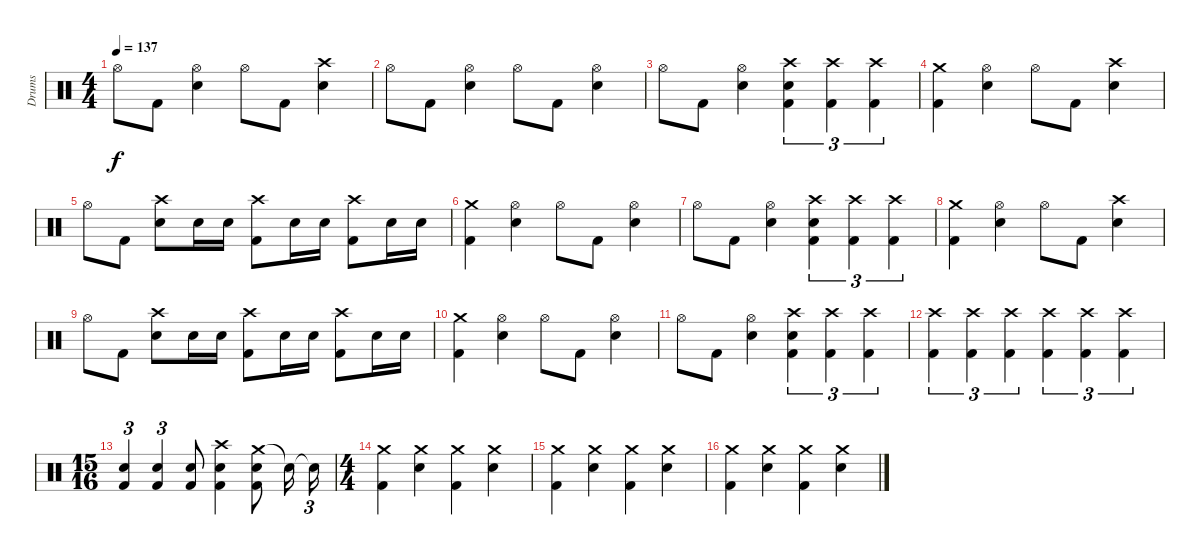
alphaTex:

\track ("Drums" "Drums") {instrument percussion}
\staff {score}
\articulation defaults
\ts (4 4)
\tempo 137
\clef neutral
\ks c "Hi-Hat (open)".8{dy f} "Kick (hit) 2".8
("Hi-Hat (open)" "Snare (hit) 2").4 "Hi-Hat (open)".8 "Kick (hit) 2".8 ("Crash high (hit)" "Snare (hit) 2").4 |
"Hi-Hat (open)".8 "Kick (hit) 2".8 ("Hi-Hat (open)" "Snare (hit) 2").4 "Hi-Hat (open)".8 "Kick (hit) 2".8 ("Hi-Hat (open)" "Snare (hit) 2").4 |
"Hi-Hat (open)".8 "Kick (hit) 2".8 ("Hi-Hat (open)" "Snare (hit) 2").4 ("Crash high (hit)" "Snare (hit) 2" "Kick (hit) 2").4{tu (3 2)} ("Crash high (hit)" "Kick (hit) 2").4{tu (3 2)} ("Crash high (hit)" "Kick (hit) 2").4{tu (3 2)} |
("Crash medium (hit)" "Kick (hit) 2").4 ("Hi-Hat (open)" "Snare (hit) 2").4 "Hi-Hat (open)".8 "Kick (hit) 2".8 ("Crash high (hit)" "Snare (hit) 2").4 |
"Hi-Hat (open)".8 "Kick (hit) 2".8 ("Crash high (hit)" "Snare (hit) 2").8 "Snare (hit) 2".16 "Snare (hit) 2".16 ("Crash high (hit)" "Kick (hit) 2").8 "Snare (hit) 2".16 "Snare (hit) 2".16 ("Crash high (hit)" "Kick (hit) 2").8 "Snare (hit) 2".16 "Snare (hit) 2".16 |
("Crash medium (hit)" "Kick (hit) 2").4 ("Hi-Hat (open)" "Snare (hit) 2").4 "Hi-Hat (open)".8 "Kick (hit) 2".8 ("Hi-Hat (open)" "Snare (hit) 2").4 |
"Hi-Hat (open)".8 "Kick (hit) 2".8 ("Hi-Hat (open)" "Snare (hit) 2").4 ("Crash high (hit)" "Snare (hit) 2" "Kick (hit) 2").4{tu (3 2)} ("Crash high (hit)" "Kick (hit) 2").4{tu (3 2)} ("Crash high (hit)" "Kick (hit) 2").4{tu (3 2)} |
("Crash medium (hit)" "Kick (hit) 2").4 ("Hi-Hat (open)" "Snare (hit) 2").4 "Hi-Hat (open)".8 "Kick (hit) 2".8 ("Crash high (hit)" "Snare (hit) 2").4 |
"Hi-Hat (open)".8 "Kick (hit) 2".8 ("Crash high (hit)" "Snare (hit) 2").8 "Snare (hit) 2".16 "Snare (hit) 2".16 ("Crash high (hit)" "Kick (hit) 2").8 "Snare (hit) 2".16 "Snare (hit) 2".16 ("Crash high (hit)" "Kick (hit) 2").8 "Snare (hit) 2".16 "Snare (hit) 2".16 |
("Crash medium (hit)" "Kick (hit) 2").4 ("Hi-Hat (open)" "Snare (hit) 2").4 "Hi-Hat (open)".8 "Kick (hit) 2".8 ("Hi-Hat (open)" "Snare (hit) 2").4 |
"Hi-Hat (open)".8 "Kick (hit) 2".8 ("Hi-Hat (open)" "Snare (hit) 2").4 ("Crash high (hit)" "Snare (hit) 2" "Kick (hit) 2").4{tu (3 2)} ("Crash high (hit)" "Kick (hit) 2").4{tu (3 2)} ("Crash high (hit)" "Kick (hit) 2").4{tu (3 2)} |
("Crash high (hit)" "Kick (hit) 2").4{tu (3 2)} ("Crash high (hit)" "Kick (hit) 2").4{tu (3 2)} ("Crash high (hit)" "Kick (hit) 2").4{tu (3 2)} ("Crash high (hit)" "Kick (hit) 2").4{tu (3 2)} ("Crash high (hit)" "Kick (hit) 2").4{tu (3 2)} ("Crash high (hit)" "Kick (hit) 2").4{tu (3 2)} |
\ts (15 16)
("Snare (hit) 2" "Kick (hit) 2").4{tu (3 2)} ("Snare (hit) 2" "Kick (hit) 2").4{tu (3 2)} ("Snare (hit) 2" "Kick (hit) 2").8 ("Crash high (hit)" "Snare (hit) 2" "Kick (hit) 2").4 ("Crash medium (hit)" "Snare (hit) 2" "Kick (hit) 2").8 "Snare (hit)"{t}.16 "Snare (hit)"{t}.16{tu (3 2)} |
\ts (4 4)
("Crash medium (hit)" "Kick (hit) 2").4 ("Crash medium (hit)" "Snare (hit) 2").4 ("Crash medium (hit)" "Kick (hit) 2").4 ("Crash medium (hit)" "Snare (hit) 2").4 |
("Crash medium (hit)" "Kick (hit) 2").4 ("Crash medium (hit)" "Snare (hit) 2").4 ("Crash medium (hit)" "Kick (hit) 2").4 ("Crash medium (hit)" "Snare (hit) 2").4 |
("Crash medium (hit)" "Kick (hit) 2").4 ("Crash medium (hit)" "Snare (hit) 2").4 ("Crash medium (hit)" "Kick (hit) 2").4 ("Crash medium (hit)" "Snare (hit) 2").4
